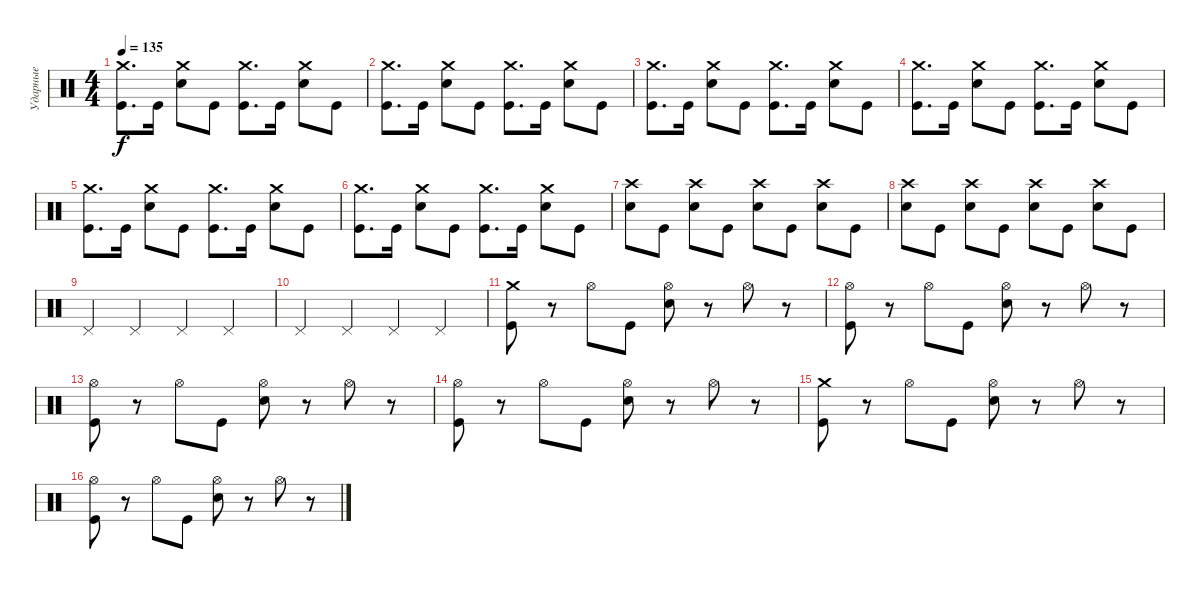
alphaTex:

\track ("Ударные" "Ударные") {instrument percussion}
\staff {score}
\articulation defaults
\ts (4 4)
\tempo 135
\clef neutral
\ks c
("Crash medium (hit)" "Kick (hit)").8{d dy f} "Kick (hit)".16 ("Crash medium (hit)" "Electric Snare (hit)").8 "Kick (hit)".8 ("Crash medium (hit)" "Kick (hit)").8{d} "Kick (hit)".16 ("Crash medium (hit)" "Electric Snare (hit)").8 "Kick (hit)".8 |
("Crash medium (hit)" "Kick (hit)").8{d} "Kick (hit)".16 ("Crash medium (hit)" "Electric Snare (hit)").8 "Kick (hit)".8 ("Crash medium (hit)" "Kick (hit)").8{d} "Kick (hit)".16 ("Crash medium (hit)" "Electric Snare (hit)").8 "Kick (hit)".8 |
("Crash medium (hit)" "Kick (hit)").8{d} "Kick (hit)".16 ("Crash medium (hit)" "Electric Snare (hit)").8 "Kick (hit)".8 ("Crash medium (hit)" "Kick (hit)").8{d} "Kick (hit)".16 ("Crash medium (hit)" "Electric Snare (hit)").8 "Kick (hit)".8 |
("Crash medium (hit)" "Kick (hit)").8{d} "Kick (hit)".16 ("Crash medium (hit)" "Electric Snare (hit)").8 "Kick (hit)".8 ("Crash medium (hit)" "Kick (hit)").8{d} "Kick (hit)".16 ("Crash medium (hit)" "Electric Snare (hit)").8 "Kick (hit)".8 |
("Crash medium (hit)" "Kick (hit)").8{d} "Kick (hit)".16 ("Crash medium (hit)" "Electric Snare (hit)").8 "Kick (hit)".8 ("Crash medium (hit)" "Kick (hit)").8{d} "Kick (hit)".16 ("Crash medium (hit)" "Electric Snare (hit)").8 "Kick (hit)".8 |
("Crash medium (hit)" "Kick (hit)").8{d} "Kick (hit)".16 ("Crash medium (hit)" "Electric Snare (hit)").8 "Kick (hit)".8 ("Crash medium (hit)" "Kick (hit)").8{d} "Kick (hit)".16 ("Crash medium (hit)" "Electric Snare (hit)").8 "Kick (hit)".8 |
("Crash high (hit)" "Electric Snare (hit)").8 "Kick (hit)".8 ("Crash high (hit)" "Electric Snare (hit)").8 "Kick (hit)".8 ("Crash high (hit)" "Electric Snare (hit)").8 "Kick (hit)".8 ("Crash high (hit)" "Electric Snare (hit)").8 "Kick (hit)".8 |
("Crash high (hit)" "Electric Snare (hit)").8 "Kick (hit)".8 ("Crash high (hit)" "Electric Snare (hit)").8 "Kick (hit)".8 ("Crash high (hit)" "Electric Snare (hit)").8 "Kick (hit)".8 ("Crash high (hit)" "Electric Snare (hit)").8 "Kick (hit)".8 |
"Pedal Hi-Hat (hit)".4 "Pedal Hi-Hat (hit)".4 "Pedal Hi-Hat (hit)".4 "Pedal Hi-Hat (hit)".4 |
"Pedal Hi-Hat (hit)".4 "Pedal Hi-Hat (hit)".4 "Pedal Hi-Hat (hit)".4 "Pedal Hi-Hat (hit)".4 |
("Crash medium (hit)" "Kick (hit)").8 r.8 "Hi-Hat (open)".8 "Kick (hit)".8 ("Hi-Hat (open)" "Electric Snare (hit)").8 r.8 "Hi-Hat (open)".8 r.8 |
("Hi-Hat (open)" "Kick (hit)").8 r.8 "Hi-Hat (open)".8 "Kick (hit)".8 ("Hi-Hat (open)" "Electric Snare (hit)").8 r.8 "Hi-Hat (open)".8 r.8 |
("Hi-Hat (open)" "Kick (hit)").8 r.8 "Hi-Hat (open)".8 "Kick (hit)".8 ("Hi-Hat (open)" "Electric Snare (hit)").8 r.8 "Hi-Hat (open)".8 r.8 |
("Hi-Hat (open)" "Kick (hit)").8 r.8 "Hi-Hat (open)".8 "Kick (hit)".8 ("Hi-Hat (open)" "Electric Snare (hit)").8 r.8 "Hi-Hat (open)".8 r.8 |
("Crash medium (hit)" "Kick (hit)").8 r.8 "Hi-Hat (open)".8 "Kick (hit)".8 ("Hi-Hat (open)" "Electric Snare (hit)").8 r.8 "Hi-Hat (open)".8 r.8 |
("Hi-Hat (open)" "Kick (hit)").8 r.8 "Hi-Hat (open)".8 "Kick (hit)".8 ("Hi-Hat (open)" "Electric Snare (hit)").8 r.8 "Hi-Hat (open)".8 r.8
